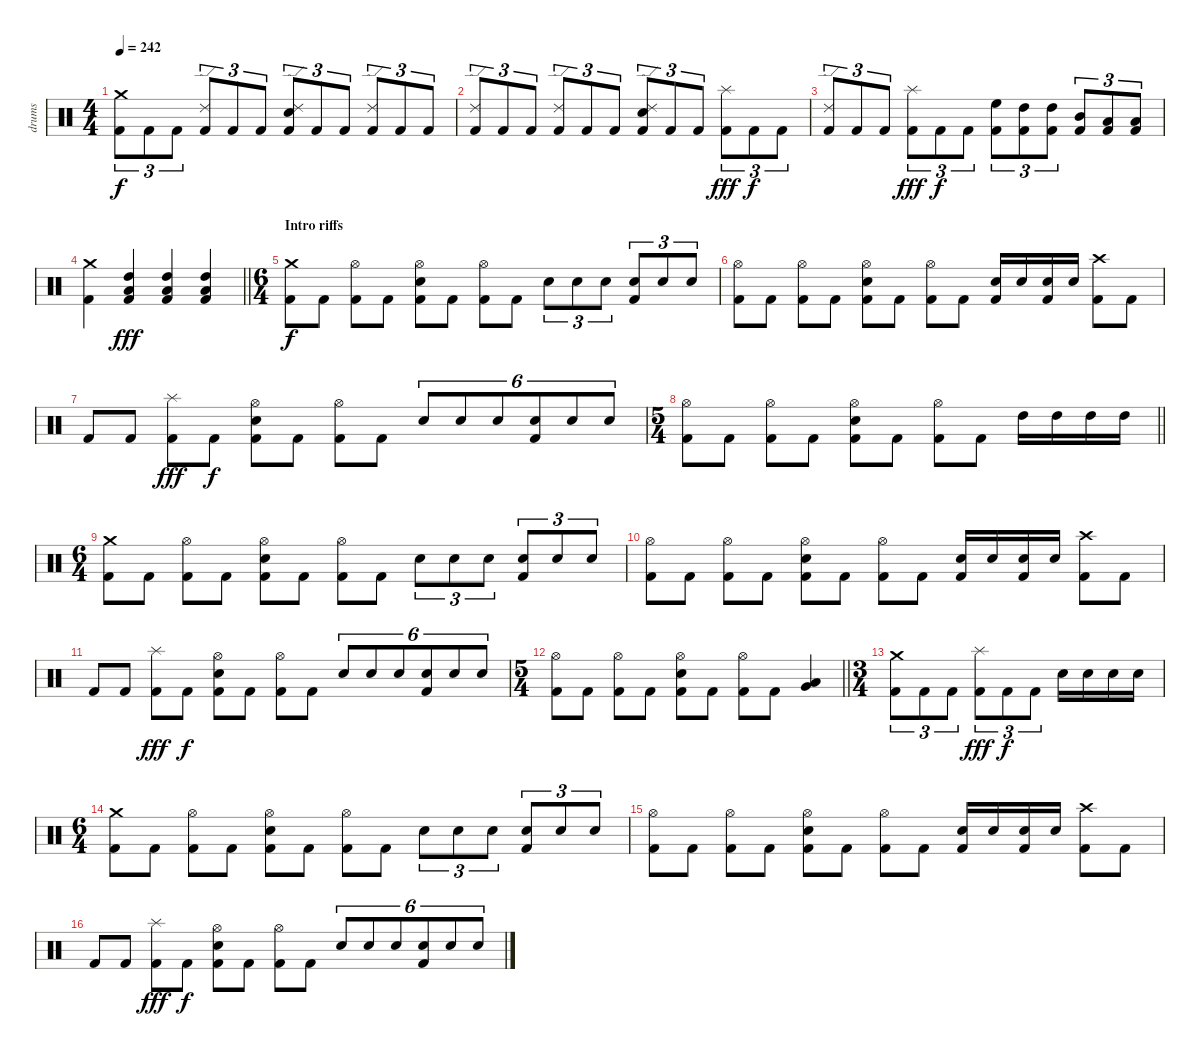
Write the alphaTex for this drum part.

\track ("drums" "drums") {instrument percussion}
\staff {score}
\articulation defaults
\ts (4 4)
\tempo 242
\clef neutral
\ks c
("Crash medium (hit)" "Kick (hit) 2").8{tu (3 2) dy f} "Kick (hit) 2".8{tu (3 2)} "Kick (hit) 2".8{tu (3 2)} ("Ride (edge) 2" "Kick (hit) 2").8{tu (3 2)} "Kick (hit) 2".8{tu (3 2)} "Kick (hit) 2".8{tu (3 2)} ("Ride (edge) 2" "Electric Snare (hit)" "Kick (hit) 2").8{tu (3 2)} "Kick (hit) 2".8{tu (3 2)} "Kick (hit) 2".8{tu (3 2)} ("Ride (edge) 2" "Kick (hit) 2").8{tu (3 2)} "Kick (hit) 2".8{tu (3 2)} "Kick (hit) 2".8{tu (3 2)} |
("Ride (edge) 2" "Kick (hit) 2").8{tu (3 2)} "Kick (hit) 2".8{tu (3 2)} "Kick (hit) 2".8{tu (3 2)} ("Ride (edge) 2" "Kick (hit) 2").8{tu (3 2)} "Kick (hit) 2".8{tu (3 2)} "Kick (hit) 2".8{tu (3 2)} ("Ride (edge) 2" "Electric Snare (hit)" "Kick (hit) 2").8{tu (3 2)} "Kick (hit) 2".8{tu (3 2)} "Kick (hit) 2".8{tu (3 2)} ("Splash (hit)" "Kick (hit) 2").8{tu (3 2) dy fff} "Kick (hit) 2".8{tu (3 2) dy f} "Kick (hit) 2".8{tu (3 2)} |
("Ride (edge) 2" "Kick (hit) 2").8{tu (3 2)} "Kick (hit) 2".8{tu (3 2)} "Kick (hit) 2".8{tu (3 2)} ("Splash (hit)" "Kick (hit) 2").8{tu (3 2) dy fff} "Kick (hit) 2".8{tu (3 2) dy f} "Kick (hit) 2".8{tu (3 2)} ("High Floor Tom (hit)" "Kick (hit) 2").8{tu (3 2)} ("High Tom (hit)" "Kick (hit) 2").8{tu (3 2)} ("High Tom (hit)" "Kick (hit) 2").8{tu (3 2)} ("Mid Tom (hit)" "Kick (hit) 2").8{tu (3 2)} ("Low Tom (hit)" "Kick (hit) 2").8{tu (3 2)} ("Low Tom (hit)" "Kick (hit) 2").8{tu (3 2)} |
\barLineRight lightlight
("Crash medium (hit)" "Kick (hit) 2").4 ("High Tom (hit)" "Low Tom (hit)" "Kick (hit) 2").4{dy fff} ("High Tom (hit)" "Low Tom (hit)" "Kick (hit) 2").4 ("High Tom (hit)" "Low Tom (hit)" "Kick (hit) 2").4 |
\ts (6 4)
\section ("" "Intro riffs")
("Crash medium (hit)" "Kick (hit) 2").8{dy f} "Kick (hit) 2".8 ("Hi-Hat (open)" "Kick (hit) 2").8 "Kick (hit) 2".8 ("Hi-Hat (open)" "Electric Snare (hit)" "Kick (hit) 2").8 "Kick (hit) 2".8 ("Hi-Hat (open)" "Kick (hit) 2").8 "Kick (hit) 2".8 "Electric Snare (hit)".8{tu (3 2)} "Electric Snare (hit)".8{tu (3 2)} "Electric Snare (hit)".8{tu (3 2)} ("Electric Snare (hit)" "Kick (hit) 2").8{tu (3 2)} "Electric Snare (hit)".8{tu (3 2)} "Electric Snare (hit)".8{tu (3 2)} |
("Hi-Hat (open)" "Kick (hit) 2").8 "Kick (hit) 2".8 ("Hi-Hat (open)" "Kick (hit) 2").8 "Kick (hit) 2".8 ("Hi-Hat (open)" "Electric Snare (hit)" "Kick (hit) 2").8 "Kick (hit) 2".8 ("Hi-Hat (open)" "Kick (hit) 2").8 "Kick (hit) 2".8 ("Electric Snare (hit)" "Kick (hit) 2").16 "Electric Snare (hit)".16 ("Electric Snare (hit)" "Kick (hit) 2").16 "Electric Snare (hit)".16 ("Crash high (hit)" "Kick (hit) 2").8 "Kick (hit) 2".8 |
"Kick (hit) 2".8 "Kick (hit) 2".8 ("Splash (hit)" "Kick (hit) 2").8{dy fff} "Kick (hit) 2".8{dy f} ("Hi-Hat (open)" "Electric Snare (hit)" "Kick (hit) 2").8 "Kick (hit) 2".8 ("Hi-Hat (open)" "Kick (hit) 2").8 "Kick (hit) 2".8 "Electric Snare (hit)".8{tu (6 4)} "Electric Snare (hit)".8{tu (6 4)} "Electric Snare (hit)".8{tu (6 4)} ("Electric Snare (hit)" "Kick (hit) 2").8{tu (6 4)} "Electric Snare (hit)".8{tu (6 4)} "Electric Snare (hit)".8{tu (6 4)} |
\ts (5 4)
\barLineRight lightlight
("Hi-Hat (open)" "Kick (hit) 2").8 "Kick (hit) 2".8 ("Hi-Hat (open)" "Kick (hit) 2").8 "Kick (hit) 2".8 ("Hi-Hat (open)" "Electric Snare (hit)" "Kick (hit) 2").8 "Kick (hit) 2".8 ("Hi-Hat (open)" "Kick (hit) 2").8 "Kick (hit) 2".8 "High Tom (hit)".16 "High Tom (hit)".16 "High Tom (hit)".16 "High Tom (hit)".16 |
\ts (6 4)
("Crash medium (hit)" "Kick (hit) 2").8 "Kick (hit) 2".8 ("Hi-Hat (open)" "Kick (hit) 2").8 "Kick (hit) 2".8 ("Hi-Hat (open)" "Electric Snare (hit)" "Kick (hit) 2").8 "Kick (hit) 2".8 ("Hi-Hat (open)" "Kick (hit) 2").8 "Kick (hit) 2".8 "Electric Snare (hit)".8{tu (3 2)} "Electric Snare (hit)".8{tu (3 2)} "Electric Snare (hit)".8{tu (3 2)} ("Electric Snare (hit)" "Kick (hit) 2").8{tu (3 2)} "Electric Snare (hit)".8{tu (3 2)} "Electric Snare (hit)".8{tu (3 2)} |
("Hi-Hat (open)" "Kick (hit) 2").8 "Kick (hit) 2".8 ("Hi-Hat (open)" "Kick (hit) 2").8 "Kick (hit) 2".8 ("Hi-Hat (open)" "Electric Snare (hit)" "Kick (hit) 2").8 "Kick (hit) 2".8 ("Hi-Hat (open)" "Kick (hit) 2").8 "Kick (hit) 2".8 ("Electric Snare (hit)" "Kick (hit) 2").16 "Electric Snare (hit)".16 ("Electric Snare (hit)" "Kick (hit) 2").16 "Electric Snare (hit)".16 ("Crash high (hit)" "Kick (hit) 2").8 "Kick (hit) 2".8 |
"Kick (hit) 2".8 "Kick (hit) 2".8 ("Splash (hit)" "Kick (hit) 2").8{dy fff} "Kick (hit) 2".8{dy f} ("Hi-Hat (open)" "Electric Snare (hit)" "Kick (hit) 2").8 "Kick (hit) 2".8 ("Hi-Hat (open)" "Kick (hit) 2").8 "Kick (hit) 2".8 "Electric Snare (hit)".8{tu (6 4)} "Electric Snare (hit)".8{tu (6 4)} "Electric Snare (hit)".8{tu (6 4)} ("Electric Snare (hit)" "Kick (hit) 2").8{tu (6 4)} "Electric Snare (hit)".8{tu (6 4)} "Electric Snare (hit)".8{tu (6 4)} |
\ts (5 4)
\barLineRight lightlight
("Hi-Hat (open)" "Kick (hit) 2").8 "Kick (hit) 2".8 ("Hi-Hat (open)" "Kick (hit) 2").8 "Kick (hit) 2".8 ("Hi-Hat (open)" "Electric Snare (hit)" "Kick (hit) 2").8 "Kick (hit) 2".8 ("Hi-Hat (open)" "Kick (hit) 2").8 "Kick (hit) 2".8 ("Low Tom (hit)" "Very Low Tom (hit)").4 |
\ts (3 4)
("Crash medium (hit)" "Kick (hit) 2").8{tu (3 2)} "Kick (hit) 2".8{tu (3 2)} "Kick (hit) 2".8{tu (3 2)} ("Splash (hit)" "Kick (hit) 2").8{tu (3 2) dy fff} "Kick (hit) 2".8{tu (3 2) dy f} "Kick (hit) 2".8{tu (3 2)} "Electric Snare (hit)".16 "Electric Snare (hit)".16 "Electric Snare (hit)".16 "Electric Snare (hit)".16 |
\ts (6 4)
("Crash medium (hit)" "Kick (hit) 2").8 "Kick (hit) 2".8 ("Hi-Hat (open)" "Kick (hit) 2").8 "Kick (hit) 2".8 ("Hi-Hat (open)" "Electric Snare (hit)" "Kick (hit) 2").8 "Kick (hit) 2".8 ("Hi-Hat (open)" "Kick (hit) 2").8 "Kick (hit) 2".8 "Electric Snare (hit)".8{tu (3 2)} "Electric Snare (hit)".8{tu (3 2)} "Electric Snare (hit)".8{tu (3 2)} ("Electric Snare (hit)" "Kick (hit) 2").8{tu (3 2)} "Electric Snare (hit)".8{tu (3 2)} "Electric Snare (hit)".8{tu (3 2)} |
("Hi-Hat (open)" "Kick (hit) 2").8 "Kick (hit) 2".8 ("Hi-Hat (open)" "Kick (hit) 2").8 "Kick (hit) 2".8 ("Hi-Hat (open)" "Electric Snare (hit)" "Kick (hit) 2").8 "Kick (hit) 2".8 ("Hi-Hat (open)" "Kick (hit) 2").8 "Kick (hit) 2".8 ("Electric Snare (hit)" "Kick (hit) 2").16 "Electric Snare (hit)".16 ("Electric Snare (hit)" "Kick (hit) 2").16 "Electric Snare (hit)".16 ("Crash high (hit)" "Kick (hit) 2").8 "Kick (hit) 2".8 |
"Kick (hit) 2".8 "Kick (hit) 2".8 ("Splash (hit)" "Kick (hit) 2").8{dy fff} "Kick (hit) 2".8{dy f} ("Hi-Hat (open)" "Electric Snare (hit)" "Kick (hit) 2").8 "Kick (hit) 2".8 ("Hi-Hat (open)" "Kick (hit) 2").8 "Kick (hit) 2".8 "Electric Snare (hit)".8{tu (6 4)} "Electric Snare (hit)".8{tu (6 4)} "Electric Snare (hit)".8{tu (6 4)} ("Electric Snare (hit)" "Kick (hit) 2").8{tu (6 4)} "Electric Snare (hit)".8{tu (6 4)} "Electric Snare (hit)".8{tu (6 4)}
